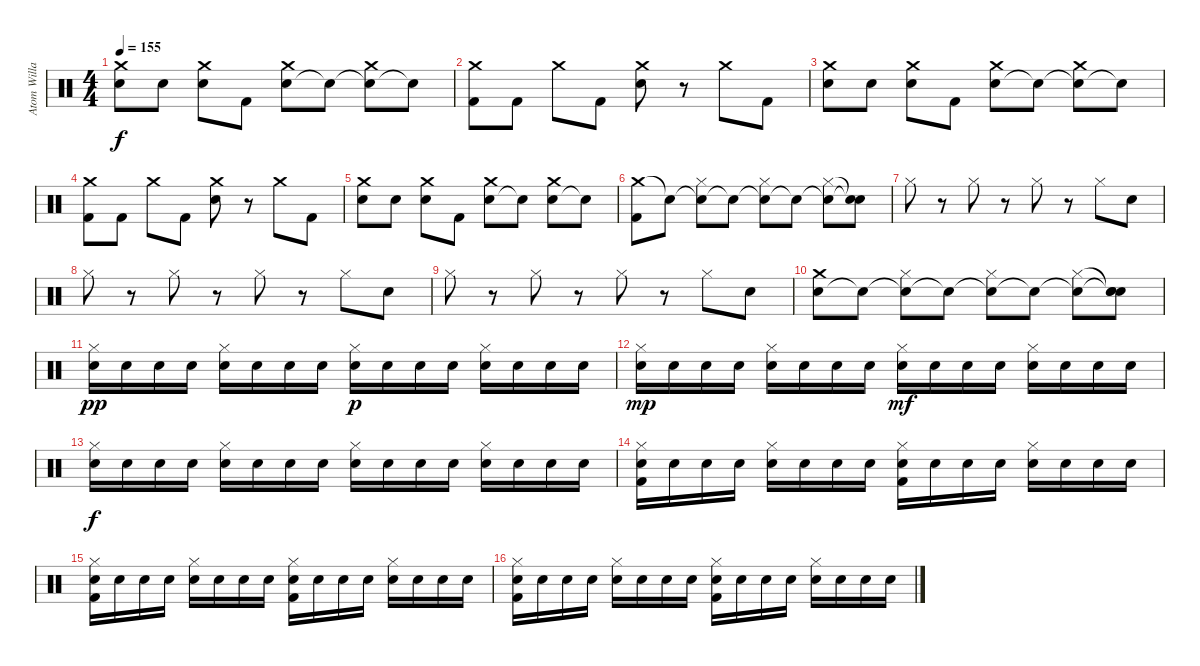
\track ("Atom Willard Drums" "Atom Willa") {instrument percussion}
\staff {score}
\articulation defaults
\ts (4 4)
\tempo 155
\clef neutral
\ks c
("Snare (hit)" "Crash medium (hit)").8{dy f} "Electric Snare (hit)".8 ("Snare (hit)" "Crash medium (hit)").8 "Kick (hit) 2".8 ("Electric Snare (hit)" "Crash medium (hit)").8 "Snare (hit)"{t}.8 ("Snare (hit)"{t} "Crash medium (hit)").8 "Snare (hit)"{t}.8 |
("Kick (hit) 2" "Crash medium (hit)").8 "Kick (hit) 2".8 "Crash medium (hit)".8 "Kick (hit) 2".8 ("Electric Snare (hit)" "Crash medium (hit)").8 r.8 "Crash medium (hit)".8 "Kick (hit) 2".8 |
("Snare (hit)" "Crash medium (hit)").8 "Electric Snare (hit)".8 ("Snare (hit)" "Crash medium (hit)").8 "Kick (hit) 2".8 ("Electric Snare (hit)" "Crash medium (hit)").8 "Snare (hit)"{t}.8 ("Snare (hit)"{t} "Crash medium (hit)").8 "Snare (hit)"{t}.8 |
("Kick (hit) 2" "Crash medium (hit)").8 "Kick (hit) 2".8 "Crash medium (hit)".8 "Kick (hit) 2".8 ("Electric Snare (hit)" "Crash medium (hit)").8 r.8 "Crash medium (hit)".8 "Kick (hit) 2".8 |
("Snare (hit)" "Crash medium (hit)").8 "Electric Snare (hit)".8 ("Snare (hit)" "Crash medium (hit)").8 "Kick (hit) 2".8 ("Electric Snare (hit)" "Crash medium (hit)").8 "Snare (hit)"{t}.8 ("Electric Snare (hit)" "Crash medium (hit)").8 "Snare (hit)"{t}.8 |
("Crash medium (hit)" "Kick (hit) 2").8 "Snare (hit)"{t}.8 ("Snare (hit)"{t} "Hi-Hat (closed)").8 "Snare (hit)"{t}.8 ("Snare (hit)"{t} "Hi-Hat (closed)").8 "Snare (hit)"{t}.8 ("Snare (hit)"{t} "Hi-Hat (closed)").8 ("Snare (hit)"{t} "Snare (hit)"{t}).8 |
"Hi-Hat (closed)".8 r.8 "Hi-Hat (closed)".8 r.8 "Hi-Hat (closed)".8 r.8 "Hi-Hat (closed)".8 "Snare (hit)".8 |
"Hi-Hat (closed)".8 r.8 "Hi-Hat (closed)".8 r.8 "Hi-Hat (closed)".8 r.8 "Hi-Hat (closed)".8 "Snare (hit)".8 |
"Hi-Hat (closed)".8 r.8 "Hi-Hat (closed)".8 r.8 "Hi-Hat (closed)".8 r.8 "Hi-Hat (closed)".8 "Snare (hit)".8 |
("Electric Snare (hit)" "Crash medium (hit)").8 "Snare (hit)"{t}.8 ("Snare (hit)"{t} "Hi-Hat (closed)").8 "Snare (hit)"{t}.8 ("Snare (hit)"{t} "Hi-Hat (closed)").8 "Snare (hit)"{t}.8 ("Snare (hit)"{t} "Hi-Hat (closed)").8 ("Snare (hit)"{t} "Snare (hit)"{t} "Snare (hit)").8 |
("Electric Snare (hit)" "Hi-Hat (closed)").16{dy pp} "Electric Snare (hit)".16 "Electric Snare (hit)".16 "Electric Snare (hit)".16 ("Electric Snare (hit)" "Hi-Hat (closed)").16 "Electric Snare (hit)".16 "Electric Snare (hit)".16 "Electric Snare (hit)".16 ("Electric Snare (hit)" "Hi-Hat (closed)").16{dy p} "Electric Snare (hit)".16 "Electric Snare (hit)".16 "Electric Snare (hit)".16 ("Electric Snare (hit)" "Hi-Hat (closed)").16 "Electric Snare (hit)".16 "Electric Snare (hit)".16 "Electric Snare (hit)".16 |
("Electric Snare (hit)" "Hi-Hat (closed)").16{dy mp} "Electric Snare (hit)".16 "Electric Snare (hit)".16 "Electric Snare (hit)".16 ("Electric Snare (hit)" "Hi-Hat (closed)").16 "Electric Snare (hit)".16 "Electric Snare (hit)".16 "Electric Snare (hit)".16 ("Electric Snare (hit)" "Hi-Hat (closed)").16{dy mf} "Electric Snare (hit)".16 "Electric Snare (hit)".16 "Electric Snare (hit)".16 ("Electric Snare (hit)" "Hi-Hat (closed)").16 "Electric Snare (hit)".16 "Electric Snare (hit)".16 "Electric Snare (hit)".16 |
("Electric Snare (hit)" "Hi-Hat (closed)").16{dy f} "Electric Snare (hit)".16 "Electric Snare (hit)".16 "Electric Snare (hit)".16 ("Electric Snare (hit)" "Hi-Hat (closed)").16 "Electric Snare (hit)".16 "Electric Snare (hit)".16 "Electric Snare (hit)".16 ("Electric Snare (hit)" "Hi-Hat (closed)").16 "Electric Snare (hit)".16 "Electric Snare (hit)".16 "Electric Snare (hit)".16 ("Electric Snare (hit)" "Hi-Hat (closed)").16 "Electric Snare (hit)".16 "Electric Snare (hit)".16 "Electric Snare (hit)".16 |
("Electric Snare (hit)" "Kick (hit) 2" "Hi-Hat (closed)").16 "Electric Snare (hit)".16 "Electric Snare (hit)".16 "Electric Snare (hit)".16 ("Electric Snare (hit)" "Hi-Hat (closed)").16 "Electric Snare (hit)".16 "Electric Snare (hit)".16 "Electric Snare (hit)".16 ("Electric Snare (hit)" "Kick (hit) 2" "Hi-Hat (closed)").16 "Electric Snare (hit)".16 "Electric Snare (hit)".16 "Electric Snare (hit)".16 ("Electric Snare (hit)" "Hi-Hat (closed)").16 "Electric Snare (hit)".16 "Electric Snare (hit)".16 "Electric Snare (hit)".16 |
("Electric Snare (hit)" "Kick (hit) 2" "Hi-Hat (closed)").16 "Electric Snare (hit)".16 "Electric Snare (hit)".16 "Electric Snare (hit)".16 ("Electric Snare (hit)" "Hi-Hat (closed)").16 "Electric Snare (hit)".16 "Electric Snare (hit)".16 "Electric Snare (hit)".16 ("Electric Snare (hit)" "Kick (hit) 2" "Hi-Hat (closed)").16 "Electric Snare (hit)".16 "Electric Snare (hit)".16 "Electric Snare (hit)".16 ("Electric Snare (hit)" "Hi-Hat (closed)").16 "Electric Snare (hit)".16 "Electric Snare (hit)".16 "Electric Snare (hit)".16 |
("Electric Snare (hit)" "Kick (hit) 2" "Hi-Hat (closed)").16 "Electric Snare (hit)".16 "Electric Snare (hit)".16 "Electric Snare (hit)".16 ("Electric Snare (hit)" "Hi-Hat (closed)").16 "Electric Snare (hit)".16 "Electric Snare (hit)".16 "Electric Snare (hit)".16 ("Electric Snare (hit)" "Kick (hit) 2" "Hi-Hat (closed)").16 "Electric Snare (hit)".16 "Electric Snare (hit)".16 "Electric Snare (hit)".16 ("Electric Snare (hit)" "Hi-Hat (closed)").16 "Electric Snare (hit)".16 "Electric Snare (hit)".16 "Electric Snare (hit)".16
